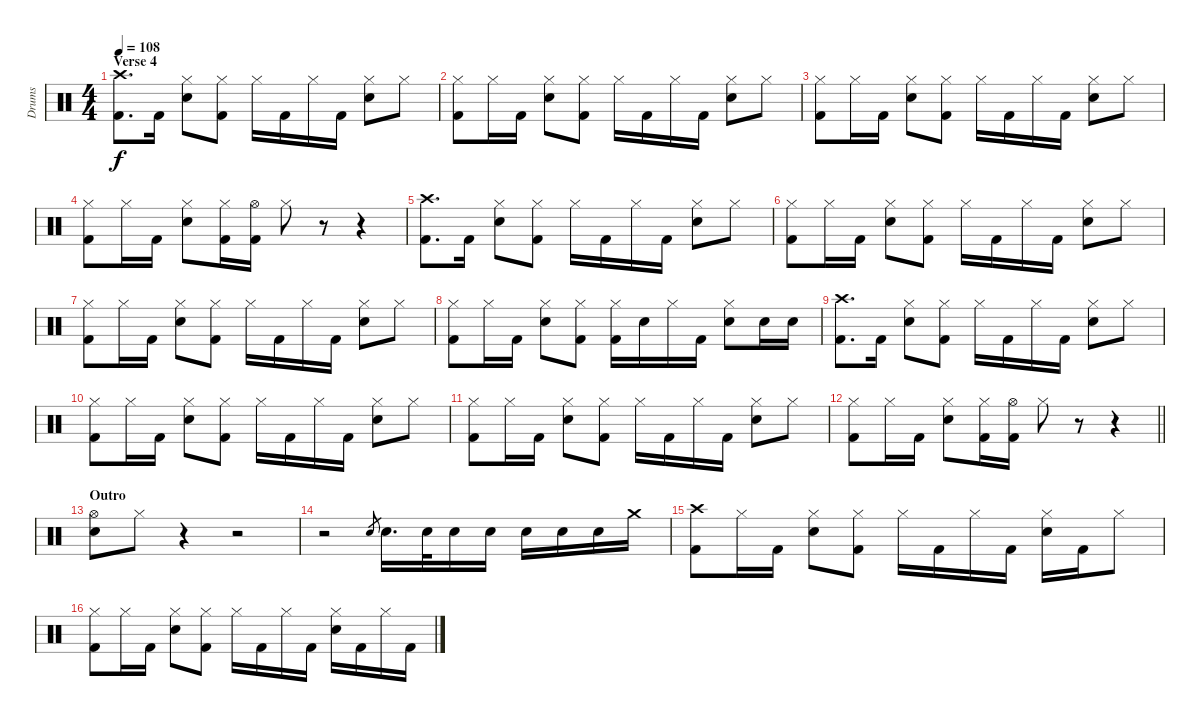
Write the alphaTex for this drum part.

\track ("Drums" "Drums") {instrument percussion}
\staff {score}
\articulation defaults
\ts (4 4)
\section ("" "Verse 4")
\tempo 108
\clef neutral
\ks c
("Crash high (hit)" "Kick (hit) 2").8{d dy f} "Kick (hit) 2".16 ("Hi-Hat (closed)" "Electric Snare (hit)").8 ("Hi-Hat (closed)" "Kick (hit) 2").8 "Hi-Hat (closed)".16 "Kick (hit) 2".16 "Hi-Hat (closed)".16 "Kick (hit) 2".16 ("Hi-Hat (closed)" "Electric Snare (hit)").8 "Hi-Hat (closed)".8 |
("Hi-Hat (closed)" "Kick (hit) 2").8 "Hi-Hat (closed)".16 "Kick (hit) 2".16 ("Hi-Hat (closed)" "Electric Snare (hit)").8 ("Hi-Hat (closed)" "Kick (hit) 2").8 "Hi-Hat (closed)".16 "Kick (hit) 2".16 "Hi-Hat (closed)".16 "Kick (hit) 2".16 ("Hi-Hat (closed)" "Electric Snare (hit)").8 "Hi-Hat (closed)".8 |
("Hi-Hat (closed)" "Kick (hit) 2").8 "Hi-Hat (closed)".16 "Kick (hit) 2".16 ("Hi-Hat (closed)" "Electric Snare (hit)").8 ("Hi-Hat (closed)" "Kick (hit) 2").8 "Hi-Hat (closed)".16 "Kick (hit) 2".16 "Hi-Hat (closed)".16 "Kick (hit) 2".16 ("Hi-Hat (closed)" "Electric Snare (hit)").8 "Hi-Hat (closed)".8 |
("Hi-Hat (closed)" "Kick (hit) 2").8 "Hi-Hat (closed)".16 "Kick (hit) 2".16 ("Hi-Hat (closed)" "Electric Snare (hit)").8 ("Hi-Hat (closed)" "Kick (hit) 2").16 ("Hi-Hat (open)" "Kick (hit) 2").16 "Hi-Hat (closed)".8 r.8 r.4 |
("Crash high (hit)" "Kick (hit) 2").8{d} "Kick (hit) 2".16 ("Hi-Hat (closed)" "Electric Snare (hit)").8 ("Hi-Hat (closed)" "Kick (hit) 2").8 "Hi-Hat (closed)".16 "Kick (hit) 2".16 "Hi-Hat (closed)".16 "Kick (hit) 2".16 ("Hi-Hat (closed)" "Electric Snare (hit)").8 "Hi-Hat (closed)".8 |
("Hi-Hat (closed)" "Kick (hit) 2").8 "Hi-Hat (closed)".16 "Kick (hit) 2".16 ("Hi-Hat (closed)" "Electric Snare (hit)").8 ("Hi-Hat (closed)" "Kick (hit) 2").8 "Hi-Hat (closed)".16 "Kick (hit) 2".16 "Hi-Hat (closed)".16 "Kick (hit) 2".16 ("Hi-Hat (closed)" "Electric Snare (hit)").8 "Hi-Hat (closed)".8 |
("Hi-Hat (closed)" "Kick (hit) 2").8 "Hi-Hat (closed)".16 "Kick (hit) 2".16 ("Hi-Hat (closed)" "Electric Snare (hit)").8 ("Hi-Hat (closed)" "Kick (hit) 2").8 "Hi-Hat (closed)".16 "Kick (hit) 2".16 "Hi-Hat (closed)".16 "Kick (hit) 2".16 ("Hi-Hat (closed)" "Electric Snare (hit)").8 "Hi-Hat (closed)".8 |
("Hi-Hat (closed)" "Kick (hit) 2").8 "Hi-Hat (closed)".16 "Kick (hit) 2".16 ("Hi-Hat (closed)" "Electric Snare (hit)").8 ("Hi-Hat (closed)" "Kick (hit) 2").8 ("Hi-Hat (closed)" "Kick (hit) 2").16 "Electric Snare (hit)".16 "Hi-Hat (closed)".16 "Kick (hit) 2".16 ("Hi-Hat (closed)" "Electric Snare (hit)").8 "Electric Snare (hit)".16 "Electric Snare (hit)".16 |
("Crash high (hit)" "Kick (hit) 2").8{d} "Kick (hit) 2".16 ("Hi-Hat (closed)" "Electric Snare (hit)").8 ("Hi-Hat (closed)" "Kick (hit) 2").8 "Hi-Hat (closed)".16 "Kick (hit) 2".16 "Hi-Hat (closed)".16 "Kick (hit) 2".16 ("Hi-Hat (closed)" "Electric Snare (hit)").8 "Hi-Hat (closed)".8 |
("Hi-Hat (closed)" "Kick (hit) 2").8 "Hi-Hat (closed)".16 "Kick (hit) 2".16 ("Hi-Hat (closed)" "Electric Snare (hit)").8 ("Hi-Hat (closed)" "Kick (hit) 2").8 "Hi-Hat (closed)".16 "Kick (hit) 2".16 "Hi-Hat (closed)".16 "Kick (hit) 2".16 ("Hi-Hat (closed)" "Electric Snare (hit)").8 "Hi-Hat (closed)".8 |
("Hi-Hat (closed)" "Kick (hit) 2").8 "Hi-Hat (closed)".16 "Kick (hit) 2".16 ("Hi-Hat (closed)" "Electric Snare (hit)").8 ("Hi-Hat (closed)" "Kick (hit) 2").8 "Hi-Hat (closed)".16 "Kick (hit) 2".16 "Hi-Hat (closed)".16 "Kick (hit) 2".16 ("Hi-Hat (closed)" "Electric Snare (hit)").8 "Hi-Hat (closed)".8 |
\barLineRight lightlight
("Hi-Hat (closed)" "Kick (hit) 2").8 "Hi-Hat (closed)".16 "Kick (hit) 2".16 ("Hi-Hat (closed)" "Electric Snare (hit)").8 ("Hi-Hat (closed)" "Kick (hit) 2").16 ("Hi-Hat (open)" "Kick (hit) 2").16 "Hi-Hat (closed)".8 r.8 r.4 |
\section ("" "Outro")
("Hi-Hat (open)" "Electric Snare (hit)").8 "Hi-Hat (closed)".8 r.4 r.2 |
r.2 "Electric Snare (hit)".8{gr} "Electric Snare (hit)".16{d} "Electric Snare (hit)".32 "Electric Snare (hit)".16 "Electric Snare (hit)".16 "Electric Snare (hit)".16 "Electric Snare (hit)".16 "Electric Snare (hit)".16 "Crash medium (hit)".16 |
("Crash high (hit)" "Kick (hit) 2").8 "Hi-Hat (closed)".16 "Kick (hit) 2".16 ("Hi-Hat (closed)" "Electric Snare (hit)").8 ("Hi-Hat (closed)" "Kick (hit) 2").8 "Hi-Hat (closed)".16 "Kick (hit) 2".16 "Hi-Hat (closed)".16 "Kick (hit) 2".16 ("Hi-Hat (closed)" "Electric Snare (hit)").16 "Kick (hit) 2".16 "Hi-Hat (closed)".8 |
("Hi-Hat (closed)" "Kick (hit) 2").8 "Hi-Hat (closed)".16 "Kick (hit) 2".16 ("Hi-Hat (closed)" "Electric Snare (hit)").8 ("Hi-Hat (closed)" "Kick (hit) 2").8 "Hi-Hat (closed)".16 "Kick (hit) 2".16 "Hi-Hat (closed)".16 "Kick (hit) 2".16 ("Hi-Hat (closed)" "Electric Snare (hit)").16 "Kick (hit) 2".16 "Hi-Hat (closed)".16 "Kick (hit) 2".16
